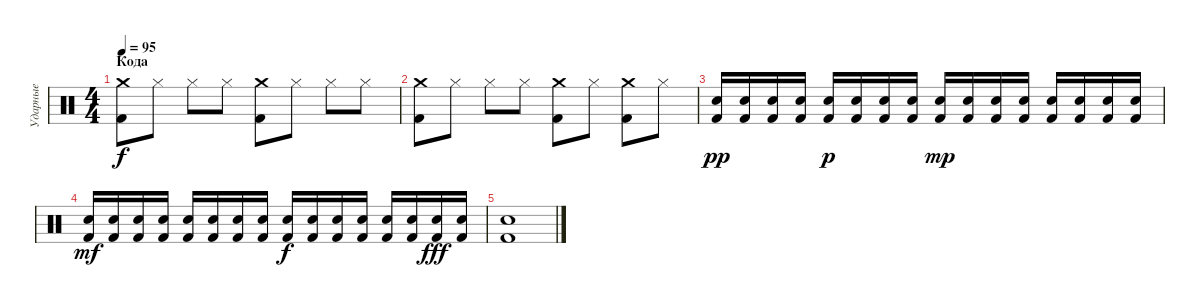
\track ("Ударные" "Ударные") {instrument percussion}
\staff {score}
\articulation defaults
\ts (4 4)
\section ("" "Кода")
\tempo 95
\clef neutral
\ks c
("Crash medium (hit)" "Kick (hit) 2").8{dy f} "Hi-Hat (closed)".8{beam split} "Hi-Hat (closed)".8 "Hi-Hat (closed)".8{beam split} ("Crash medium (hit)" "Kick (hit) 2").8 "Hi-Hat (closed)".8 "Hi-Hat (closed)".8 "Hi-Hat (closed)".8 |
("Crash medium (hit)" "Kick (hit) 2").8 "Hi-Hat (closed)".8{beam split} "Hi-Hat (closed)".8 "Hi-Hat (closed)".8{beam split} ("Crash medium (hit)" "Kick (hit) 2").8 "Hi-Hat (closed)".8 ("Crash medium (hit)" "Kick (hit) 2").8 "Hi-Hat (closed)".8 |
("Electric Snare (hit)" "Kick (hit) 2").16{dy pp} ("Electric Snare (hit)" "Kick (hit) 2").16 ("Electric Snare (hit)" "Kick (hit) 2").16 ("Electric Snare (hit)" "Kick (hit) 2").16 ("Electric Snare (hit)" "Kick (hit) 2").16{dy p} ("Electric Snare (hit)" "Kick (hit) 2").16 ("Electric Snare (hit)" "Kick (hit) 2").16 ("Electric Snare (hit)" "Kick (hit) 2").16 ("Electric Snare (hit)" "Kick (hit) 2").16{dy mp} ("Electric Snare (hit)" "Kick (hit) 2").16 ("Electric Snare (hit)" "Kick (hit) 2").16 ("Electric Snare (hit)" "Kick (hit) 2").16 ("Electric Snare (hit)" "Kick (hit) 2").16 ("Electric Snare (hit)" "Kick (hit) 2").16 ("Electric Snare (hit)" "Kick (hit) 2").16 ("Electric Snare (hit)" "Kick (hit) 2").16 |
("Electric Snare (hit)" "Kick (hit) 2").16{dy mf} ("Electric Snare (hit)" "Kick (hit) 2").16 ("Electric Snare (hit)" "Kick (hit) 2").16 ("Electric Snare (hit)" "Kick (hit) 2").16 ("Electric Snare (hit)" "Kick (hit) 2").16 ("Electric Snare (hit)" "Kick (hit) 2").16 ("Electric Snare (hit)" "Kick (hit) 2").16 ("Electric Snare (hit)" "Kick (hit) 2").16 ("Electric Snare (hit)" "Kick (hit) 2").16{dy f} ("Electric Snare (hit)" "Kick (hit) 2").16 ("Electric Snare (hit)" "Kick (hit) 2").16 ("Electric Snare (hit)" "Kick (hit) 2").16 ("Electric Snare (hit)" "Kick (hit) 2").16 ("Electric Snare (hit)" "Kick (hit) 2").16 ("Electric Snare (hit)" "Kick (hit) 2").16{dy fff} ("Electric Snare (hit)" "Kick (hit) 2").16 |
("Electric Snare (hit)" "Kick (hit) 2").1
